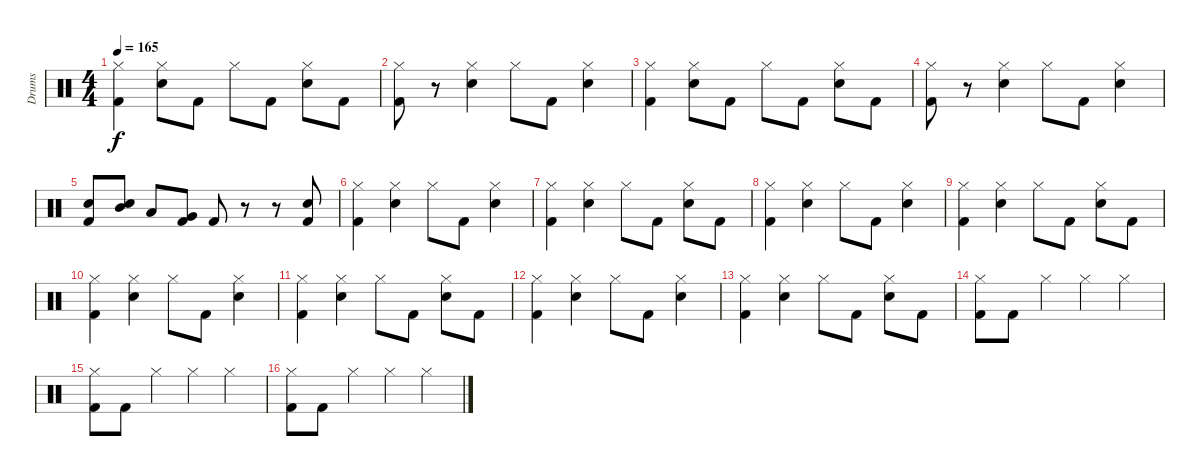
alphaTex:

\track ("Drums" "Drums") {instrument percussion}
\staff {score}
\articulation defaults
\ts (4 4)
\tempo 165
\clef neutral
\ks c
("Hi-Hat (closed)" "Kick (hit) 2").4{dy f} ("Hi-Hat (closed)" "Snare (hit) 2").8 "Kick (hit) 2".8 "Hi-Hat (closed)".8 "Kick (hit) 2".8 ("Hi-Hat (closed)" "Snare (hit) 2").8 "Kick (hit) 2".8 |
("Hi-Hat (closed)" "Kick (hit) 2").8 r.8 ("Hi-Hat (closed)" "Snare (hit) 2").4 "Hi-Hat (closed)".8 "Kick (hit) 2".8 ("Hi-Hat (closed)" "Snare (hit) 2").4 |
("Hi-Hat (closed)" "Kick (hit) 2").4 ("Hi-Hat (closed)" "Snare (hit) 2").8 "Kick (hit) 2".8 "Hi-Hat (closed)".8 "Kick (hit) 2".8 ("Hi-Hat (closed)" "Snare (hit) 2").8 "Kick (hit) 2".8 |
("Hi-Hat (closed)" "Kick (hit) 2").8 r.8 ("Hi-Hat (closed)" "Snare (hit) 2").4 "Hi-Hat (closed)".8 "Kick (hit) 2".8 ("Hi-Hat (closed)" "Snare (hit) 2").4 |
("Snare (hit) 2" "Kick (hit) 2").8 ("Snare (hit) 2" "Mid Tom (hit)").8 "Low Tom (hit)".8 ("Very Low Tom (hit)" "Kick (hit) 2").8 "Kick (hit) 2".8 r.8 r.8 ("Snare (hit) 2" "Kick (hit) 2").8 |
("Hi-Hat (closed)" "Kick (hit) 2").4 ("Hi-Hat (closed)" "Snare (hit) 2").4 "Hi-Hat (closed)".8 "Kick (hit) 2".8 ("Hi-Hat (closed)" "Snare (hit) 2").4 |
("Hi-Hat (closed)" "Kick (hit) 2").4 ("Hi-Hat (closed)" "Snare (hit) 2").4 "Hi-Hat (closed)".8 "Kick (hit) 2".8 ("Hi-Hat (closed)" "Snare (hit) 2").8 "Kick (hit) 2".8 |
("Hi-Hat (closed)" "Kick (hit) 2").4 ("Hi-Hat (closed)" "Snare (hit) 2").4 "Hi-Hat (closed)".8 "Kick (hit) 2".8 ("Hi-Hat (closed)" "Snare (hit) 2").4 |
("Hi-Hat (closed)" "Kick (hit) 2").4 ("Hi-Hat (closed)" "Snare (hit) 2").4 "Hi-Hat (closed)".8 "Kick (hit) 2".8 ("Hi-Hat (closed)" "Snare (hit) 2").8 "Kick (hit) 2".8 |
("Hi-Hat (closed)" "Kick (hit) 2").4 ("Hi-Hat (closed)" "Snare (hit) 2").4 "Hi-Hat (closed)".8 "Kick (hit) 2".8 ("Hi-Hat (closed)" "Snare (hit) 2").4 |
("Hi-Hat (closed)" "Kick (hit) 2").4 ("Hi-Hat (closed)" "Snare (hit) 2").4 "Hi-Hat (closed)".8 "Kick (hit) 2".8 ("Hi-Hat (closed)" "Snare (hit) 2").8 "Kick (hit) 2".8 |
("Hi-Hat (closed)" "Kick (hit) 2").4 ("Hi-Hat (closed)" "Snare (hit) 2").4 "Hi-Hat (closed)".8 "Kick (hit) 2".8 ("Hi-Hat (closed)" "Snare (hit) 2").4 |
("Hi-Hat (closed)" "Kick (hit) 2").4 ("Hi-Hat (closed)" "Snare (hit) 2").4 "Hi-Hat (closed)".8 "Kick (hit) 2".8 ("Hi-Hat (closed)" "Snare (hit) 2").8 "Kick (hit) 2".8 |
("Hi-Hat (closed)" "Kick (hit) 2").8 "Kick (hit) 2".8 "Hi-Hat (closed)".4 "Hi-Hat (closed)".4 "Hi-Hat (closed)".4 |
("Hi-Hat (closed)" "Kick (hit) 2").8 "Kick (hit) 2".8 "Hi-Hat (closed)".4 "Hi-Hat (closed)".4 "Hi-Hat (closed)".4 |
("Hi-Hat (closed)" "Kick (hit) 2").8 "Kick (hit) 2".8 "Hi-Hat (closed)".4 "Hi-Hat (closed)".4 "Hi-Hat (closed)".4
